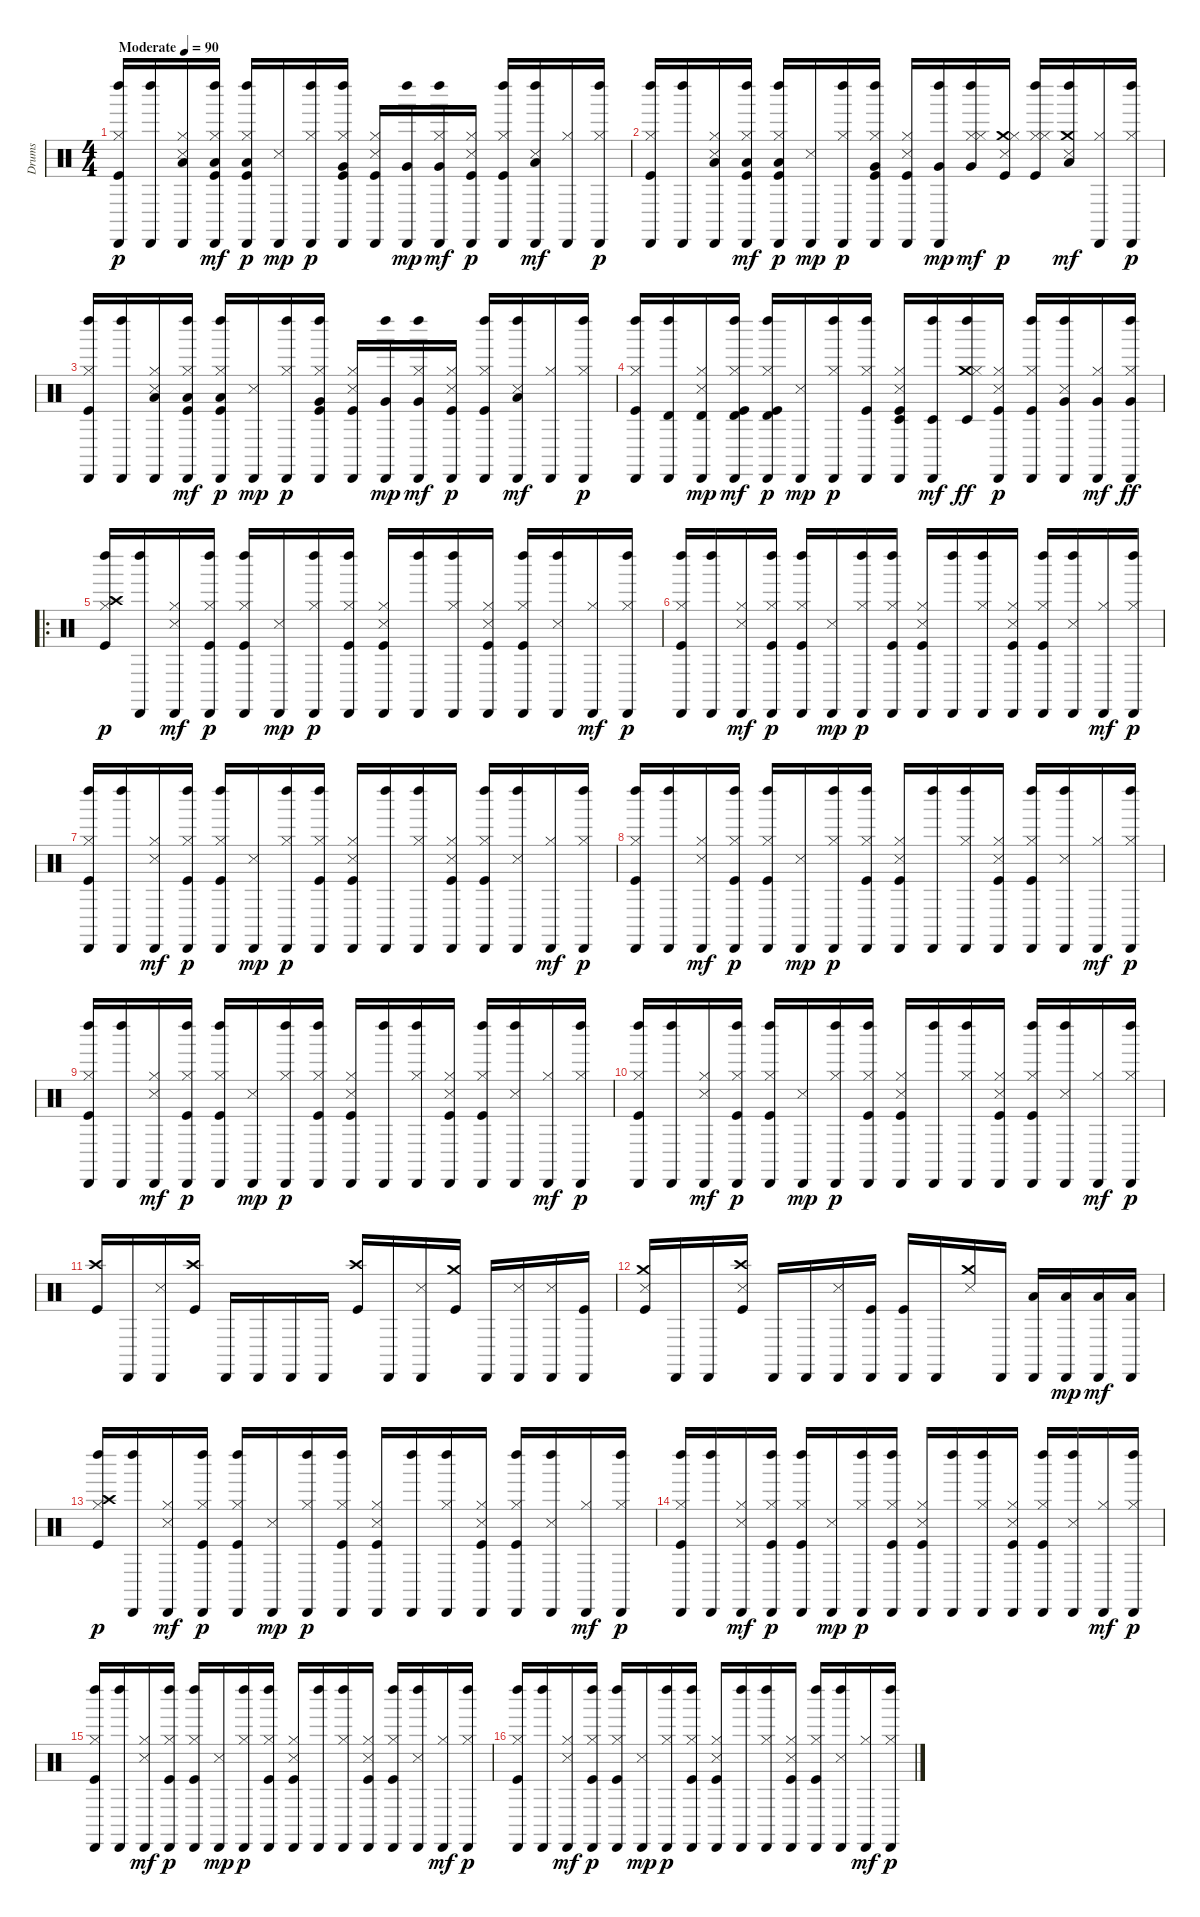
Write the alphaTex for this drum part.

\track ("Drums" "Drums") {instrument percussion}
\staff {score}
\articulation defaults
\ts (4 4)
\tempo (90 "Moderate")
\clef neutral
\ks c
("Cabasa (hit)" "Hi-Hat (closed)" "Left Maraca (hit)" "Kick (hit)").16{dy p} ("Cabasa (hit)" "Left Maraca (hit)").16 ("Cabasa (hit)" "Hi-Hat (closed)" "Snare (side stick) 3" "Low Tom (hit)").16 ("Cabasa (hit)" "Hi-Hat (closed)" "Left Maraca (hit)" "Low Tom (hit)" "Kick (hit)").16{dy mf} ("Cabasa (hit)" "Hi-Hat (closed)" "Left Maraca (hit)" "Low Tom (hit)" "Kick (hit)").16{dy p} ("Cabasa (hit)" "Snare (side stick) 3").16{dy mp} ("Cabasa (hit)" "Hi-Hat (closed)" "Left Maraca (hit)").16{dy p} ("Cabasa (hit)" "Hi-Hat (closed)" "Left Maraca (hit)" "Very Low Tom (hit)" "Kick (hit)").16 ("Cabasa (hit)" "Hi-Hat (closed)" "Snare (side stick) 3" "Kick (hit)").16 ("Cabasa (hit)" "Left Maraca (hit)" "Very Low Tom (hit)").16{dy mp} ("Cabasa (hit)" "Hi-Hat (closed)" "Left Maraca (hit)" "Very Low Tom (hit)").16{dy mf} ("Cabasa (hit)" "Hi-Hat (closed)" "Snare (side stick) 3" "Kick (hit)").16{dy p} ("Cabasa (hit)" "Hi-Hat (closed)" "Left Maraca (hit)" "Kick (hit)").16 ("Cabasa (hit)" "Snare (side stick) 3" "Left Maraca (hit)" "Low Floor Tom (hit)").16{dy mf} ("Cabasa (hit)" "Hi-Hat (closed)").16 ("Cabasa (hit)" "Hi-Hat (closed)" "Left Maraca (hit)").16{dy p} |
("Cabasa (hit)" "Hi-Hat (closed)" "Left Maraca (hit)" "Kick (hit)").16 ("Cabasa (hit)" "Left Maraca (hit)").16 ("Cabasa (hit)" "Hi-Hat (closed)" "Snare (side stick) 3" "Low Tom (hit)").16 ("Cabasa (hit)" "Hi-Hat (closed)" "Left Maraca (hit)" "Low Tom (hit)" "Kick (hit)").16{dy mf} ("Cabasa (hit)" "Hi-Hat (closed)" "Left Maraca (hit)" "Low Tom (hit)" "Kick (hit)").16{dy p} ("Cabasa (hit)" "Snare (side stick) 3").16{dy mp} ("Cabasa (hit)" "Hi-Hat (closed)" "Left Maraca (hit)").16{dy p} ("Cabasa (hit)" "Hi-Hat (closed)" "Left Maraca (hit)" "Very Low Tom (hit)" "Kick (hit)").16 ("Cabasa (hit)" "Hi-Hat (closed)" "Snare (side stick) 3" "Kick (hit)").16 ("Cabasa (hit)" "Left Maraca (hit)" "Very Low Tom (hit)").16{dy mp} ("Hi-Hat (closed)" "Hi-Hat (closed)" "Left Maraca (hit)" "Very Low Tom (hit)").16{dy mf} ("Crash medium (hit)" "Hi-Hat (closed)" "Snare (side stick) 3" "Kick (hit)").16{dy p} ("Hi-Hat (closed)" "Hi-Hat (closed)" "Left Maraca (hit)" "Kick (hit)").16 ("Crash medium (hit)" "Snare (side stick) 3" "Left Maraca (hit)" "Low Floor Tom (hit)").16{dy mf} ("Cabasa (hit)" "Hi-Hat (closed)").16 ("Cabasa (hit)" "Hi-Hat (closed)" "Left Maraca (hit)").16{dy p} |
("Cabasa (hit)" "Hi-Hat (closed)" "Left Maraca (hit)" "Kick (hit)").16 ("Cabasa (hit)" "Left Maraca (hit)").16 ("Cabasa (hit)" "Hi-Hat (closed)" "Snare (side stick) 3" "Low Tom (hit)").16 ("Cabasa (hit)" "Hi-Hat (closed)" "Left Maraca (hit)" "Low Tom (hit)" "Kick (hit)").16{dy mf} ("Cabasa (hit)" "Hi-Hat (closed)" "Left Maraca (hit)" "Low Tom (hit)" "Kick (hit)").16{dy p} ("Cabasa (hit)" "Snare (side stick) 3").16{dy mp} ("Cabasa (hit)" "Hi-Hat (closed)" "Left Maraca (hit)").16{dy p} ("Cabasa (hit)" "Hi-Hat (closed)" "Left Maraca (hit)" "Very Low Tom (hit)" "Kick (hit)").16 ("Cabasa (hit)" "Hi-Hat (closed)" "Snare (side stick) 3" "Kick (hit)").16 ("Cabasa (hit)" "Left Maraca (hit)" "Very Low Tom (hit)").16{dy mp} ("Cabasa (hit)" "Hi-Hat (closed)" "Left Maraca (hit)" "Very Low Tom (hit)").16{dy mf} ("Cabasa (hit)" "Hi-Hat (closed)" "Snare (side stick) 3" "Kick (hit)").16{dy p} ("Cabasa (hit)" "Hi-Hat (closed)" "Left Maraca (hit)" "Kick (hit)").16 ("Cabasa (hit)" "Snare (side stick) 3" "Left Maraca (hit)" "Low Floor Tom (hit)").16{dy mf} ("Cabasa (hit)" "Hi-Hat (closed)").16 ("Cabasa (hit)" "Hi-Hat (closed)" "Left Maraca (hit)").16{dy p} |
("Cabasa (hit)" "Hi-Hat (closed)" "Left Maraca (hit)" "Kick (hit)").16 ("Cabasa (hit)" "Left Maraca (hit)" "Timbale high (hit)").16 ("Cabasa (hit)" "Hi-Hat (closed)" "Snare (side stick) 3" "Timbale high (hit)").16{dy mp} ("Cabasa (hit)" "Hi-Hat (closed)" "Left Maraca (hit)" "Timbale high (hit)" "Kick (hit)").16{dy mf} ("Cabasa (hit)" "Hi-Hat (closed)" "Left Maraca (hit)" "Timbale high (hit)" "Kick (hit)").16{dy p} ("Cabasa (hit)" "Snare (side stick) 3").16{dy mp} ("Cabasa (hit)" "Hi-Hat (closed)" "Left Maraca (hit)").16{dy p} ("Cabasa (hit)" "Hi-Hat (closed)" "Left Maraca (hit)" "Kick (hit)").16 ("Cabasa (hit)" "Hi-Hat (closed)" "Snare (side stick) 3" "Timbale low (hit)" "Kick (hit)").16 ("Cabasa (hit)" "Left Maraca (hit)" "Timbale low (hit)").16{dy mf} ("Crash medium (hit)" "Hi-Hat (closed)" "Left Maraca (hit)" "Timbale low (hit)").16{dy ff} ("Cabasa (hit)" "Hi-Hat (closed)" "Snare (side stick) 3" "Kick (hit)").16{dy p} ("Cabasa (hit)" "Hi-Hat (closed)" "Left Maraca (hit)" "Kick (hit)").16 ("Cabasa (hit)" "Snare (side stick) 3" "Left Maraca (hit)" "Very Low Tom (hit)").16 ("Cabasa (hit)" "Hi-Hat (closed)" "Very Low Tom (hit)").16{dy mf} ("Cabasa (hit)" "Hi-Hat (closed)" "Left Maraca (hit)" "Very Low Tom (hit)").16{dy ff} |
\ro
("Crash high (hit)" "Hi-Hat (closed)" "Left Maraca (hit)" "Kick (hit)").16{dy p} ("Cabasa (hit)" "Left Maraca (hit)").16 ("Cabasa (hit)" "Hi-Hat (closed)" "Snare (side stick) 3").16{dy mf} ("Cabasa (hit)" "Hi-Hat (closed)" "Left Maraca (hit)" "Kick (hit)").16{dy p} ("Cabasa (hit)" "Hi-Hat (closed)" "Left Maraca (hit)" "Kick (hit)").16 ("Cabasa (hit)" "Snare (side stick) 3").16{dy mp} ("Cabasa (hit)" "Hi-Hat (closed)" "Left Maraca (hit)").16{dy p} ("Cabasa (hit)" "Hi-Hat (closed)" "Left Maraca (hit)" "Kick (hit)").16 ("Cabasa (hit)" "Hi-Hat (closed)" "Snare (side stick) 3" "Kick (hit)").16 ("Cabasa (hit)" "Left Maraca (hit)").16 ("Cabasa (hit)" "Hi-Hat (closed)" "Left Maraca (hit)").16 ("Cabasa (hit)" "Hi-Hat (closed)" "Snare (side stick) 3" "Kick (hit)").16 ("Cabasa (hit)" "Hi-Hat (closed)" "Left Maraca (hit)" "Kick (hit)").16 ("Cabasa (hit)" "Snare (side stick) 3" "Left Maraca (hit)").16 ("Cabasa (hit)" "Hi-Hat (closed)").16{dy mf} ("Cabasa (hit)" "Hi-Hat (closed)" "Left Maraca (hit)").16{dy p} |
("Cabasa (hit)" "Hi-Hat (closed)" "Left Maraca (hit)" "Kick (hit)").16 ("Cabasa (hit)" "Left Maraca (hit)").16 ("Cabasa (hit)" "Hi-Hat (closed)" "Snare (side stick) 3").16{dy mf} ("Cabasa (hit)" "Hi-Hat (closed)" "Left Maraca (hit)" "Kick (hit)").16{dy p} ("Cabasa (hit)" "Hi-Hat (closed)" "Left Maraca (hit)" "Kick (hit)").16 ("Cabasa (hit)" "Snare (side stick) 3").16{dy mp} ("Cabasa (hit)" "Hi-Hat (closed)" "Left Maraca (hit)").16{dy p} ("Cabasa (hit)" "Hi-Hat (closed)" "Left Maraca (hit)" "Kick (hit)").16 ("Cabasa (hit)" "Hi-Hat (closed)" "Snare (side stick) 3" "Kick (hit)").16 ("Cabasa (hit)" "Left Maraca (hit)").16 ("Cabasa (hit)" "Hi-Hat (closed)" "Left Maraca (hit)").16 ("Cabasa (hit)" "Hi-Hat (closed)" "Snare (side stick) 3" "Kick (hit)").16 ("Cabasa (hit)" "Hi-Hat (closed)" "Left Maraca (hit)" "Kick (hit)").16 ("Cabasa (hit)" "Snare (side stick) 3" "Left Maraca (hit)").16 ("Cabasa (hit)" "Hi-Hat (closed)").16{dy mf} ("Cabasa (hit)" "Hi-Hat (closed)" "Left Maraca (hit)").16{dy p} |
("Cabasa (hit)" "Hi-Hat (closed)" "Left Maraca (hit)" "Kick (hit)").16 ("Cabasa (hit)" "Left Maraca (hit)").16 ("Cabasa (hit)" "Hi-Hat (closed)" "Snare (side stick) 3").16{dy mf} ("Cabasa (hit)" "Hi-Hat (closed)" "Left Maraca (hit)" "Kick (hit)").16{dy p} ("Cabasa (hit)" "Hi-Hat (closed)" "Left Maraca (hit)" "Kick (hit)").16 ("Cabasa (hit)" "Snare (side stick) 3").16{dy mp} ("Cabasa (hit)" "Hi-Hat (closed)" "Left Maraca (hit)").16{dy p} ("Cabasa (hit)" "Hi-Hat (closed)" "Left Maraca (hit)" "Kick (hit)").16 ("Cabasa (hit)" "Hi-Hat (closed)" "Snare (side stick) 3" "Kick (hit)").16 ("Cabasa (hit)" "Left Maraca (hit)").16 ("Cabasa (hit)" "Hi-Hat (closed)" "Left Maraca (hit)").16 ("Cabasa (hit)" "Hi-Hat (closed)" "Snare (side stick) 3" "Kick (hit)").16 ("Cabasa (hit)" "Hi-Hat (closed)" "Left Maraca (hit)" "Kick (hit)").16 ("Cabasa (hit)" "Snare (side stick) 3" "Left Maraca (hit)").16 ("Cabasa (hit)" "Hi-Hat (closed)").16{dy mf} ("Cabasa (hit)" "Hi-Hat (closed)" "Left Maraca (hit)").16{dy p} |
("Cabasa (hit)" "Hi-Hat (closed)" "Left Maraca (hit)" "Kick (hit)").16 ("Cabasa (hit)" "Left Maraca (hit)").16 ("Cabasa (hit)" "Hi-Hat (closed)" "Snare (side stick) 3").16{dy mf} ("Cabasa (hit)" "Hi-Hat (closed)" "Left Maraca (hit)" "Kick (hit)").16{dy p} ("Cabasa (hit)" "Hi-Hat (closed)" "Left Maraca (hit)" "Kick (hit)").16 ("Cabasa (hit)" "Snare (side stick) 3").16{dy mp} ("Cabasa (hit)" "Hi-Hat (closed)" "Left Maraca (hit)").16{dy p} ("Cabasa (hit)" "Hi-Hat (closed)" "Left Maraca (hit)" "Kick (hit)").16 ("Cabasa (hit)" "Hi-Hat (closed)" "Snare (side stick) 3" "Kick (hit)").16 ("Cabasa (hit)" "Left Maraca (hit)").16 ("Cabasa (hit)" "Hi-Hat (closed)" "Left Maraca (hit)").16 ("Cabasa (hit)" "Hi-Hat (closed)" "Snare (side stick) 3" "Kick (hit)").16 ("Cabasa (hit)" "Hi-Hat (closed)" "Left Maraca (hit)" "Kick (hit)").16 ("Cabasa (hit)" "Snare (side stick) 3" "Left Maraca (hit)").16 ("Cabasa (hit)" "Hi-Hat (closed)").16{dy mf} ("Cabasa (hit)" "Hi-Hat (closed)" "Left Maraca (hit)").16{dy p} |
("Cabasa (hit)" "Hi-Hat (closed)" "Left Maraca (hit)" "Kick (hit)").16 ("Cabasa (hit)" "Left Maraca (hit)").16 ("Cabasa (hit)" "Hi-Hat (closed)" "Snare (side stick) 3").16{dy mf} ("Cabasa (hit)" "Hi-Hat (closed)" "Left Maraca (hit)" "Kick (hit)").16{dy p} ("Cabasa (hit)" "Hi-Hat (closed)" "Left Maraca (hit)" "Kick (hit)").16 ("Cabasa (hit)" "Snare (side stick) 3").16{dy mp} ("Cabasa (hit)" "Hi-Hat (closed)" "Left Maraca (hit)").16{dy p} ("Cabasa (hit)" "Hi-Hat (closed)" "Left Maraca (hit)" "Kick (hit)").16 ("Cabasa (hit)" "Hi-Hat (closed)" "Snare (side stick) 3" "Kick (hit)").16 ("Cabasa (hit)" "Left Maraca (hit)").16 ("Cabasa (hit)" "Hi-Hat (closed)" "Left Maraca (hit)").16 ("Cabasa (hit)" "Hi-Hat (closed)" "Snare (side stick) 3" "Kick (hit)").16 ("Cabasa (hit)" "Hi-Hat (closed)" "Left Maraca (hit)" "Kick (hit)").16 ("Cabasa (hit)" "Snare (side stick) 3" "Left Maraca (hit)").16 ("Cabasa (hit)" "Hi-Hat (closed)").16{dy mf} ("Cabasa (hit)" "Hi-Hat (closed)" "Left Maraca (hit)").16{dy p} |
("Cabasa (hit)" "Hi-Hat (closed)" "Left Maraca (hit)" "Kick (hit)").16 ("Cabasa (hit)" "Left Maraca (hit)").16 ("Cabasa (hit)" "Hi-Hat (closed)" "Snare (side stick) 3").16{dy mf} ("Cabasa (hit)" "Hi-Hat (closed)" "Left Maraca (hit)" "Kick (hit)").16{dy p} ("Cabasa (hit)" "Hi-Hat (closed)" "Left Maraca (hit)" "Kick (hit)").16 ("Cabasa (hit)" "Snare (side stick) 3").16{dy mp} ("Cabasa (hit)" "Hi-Hat (closed)" "Left Maraca (hit)").16{dy p} ("Cabasa (hit)" "Hi-Hat (closed)" "Left Maraca (hit)" "Kick (hit)").16 ("Cabasa (hit)" "Hi-Hat (closed)" "Snare (side stick) 3" "Kick (hit)").16 ("Cabasa (hit)" "Left Maraca (hit)").16 ("Cabasa (hit)" "Hi-Hat (closed)" "Left Maraca (hit)").16 ("Cabasa (hit)" "Hi-Hat (closed)" "Snare (side stick) 3" "Kick (hit)").16 ("Cabasa (hit)" "Hi-Hat (closed)" "Left Maraca (hit)" "Kick (hit)").16 ("Cabasa (hit)" "Snare (side stick) 3" "Left Maraca (hit)").16 ("Cabasa (hit)" "Hi-Hat (closed)").16{dy mf} ("Cabasa (hit)" "Hi-Hat (closed)" "Left Maraca (hit)").16{dy p} |
("Crash high (hit)" "Kick (hit)").16 "Cabasa (hit)".16 ("Cabasa (hit)" "Snare (side stick) 3").16 ("Crash high (hit)" "Kick (hit)").16 "Cabasa (hit)".16 "Cabasa (hit)".16 "Cabasa (hit)".16 "Cabasa (hit)".16 ("Crash high (hit)" "Kick (hit)").16 "Cabasa (hit)".16 ("Cabasa (hit)" "Snare (side stick) 3").16 ("Crash medium (hit)" "Kick (hit)").16 "Cabasa (hit)".16 ("Cabasa (hit)" "Snare (side stick) 3").16 ("Cabasa (hit)" "Snare (side stick) 3").16 ("Cabasa (hit)" "Kick (hit)").16 |
("Crash medium (hit)" "Snare (side stick) 3" "Kick (hit)").16 "Cabasa (hit)".16 "Cabasa (hit)".16 ("Crash high (hit)" "Snare (side stick) 3" "Kick (hit)").16 "Cabasa (hit)".16 "Cabasa (hit)".16 ("Cabasa (hit)" "Snare (side stick) 3").16 ("Cabasa (hit)" "Kick (hit)").16 ("Cabasa (hit)" "Kick (hit)").16 "Cabasa (hit)".16 ("Crash medium (hit)" "Snare (side stick) 3").16 "Cabasa (hit)".16 ("Cabasa (hit)" "Low Floor Tom (hit)").16 ("Cabasa (hit)" "Low Floor Tom (hit)").16{dy mp} ("Cabasa (hit)" "Low Floor Tom (hit)").16{dy mf} ("Cabasa (hit)" "Low Floor Tom (hit)").16 |
("Crash high (hit)" "Hi-Hat (closed)" "Left Maraca (hit)" "Kick (hit)").16{dy p} ("Cabasa (hit)" "Left Maraca (hit)").16 ("Cabasa (hit)" "Hi-Hat (closed)" "Snare (side stick) 3").16{dy mf} ("Cabasa (hit)" "Hi-Hat (closed)" "Left Maraca (hit)" "Kick (hit)").16{dy p} ("Cabasa (hit)" "Hi-Hat (closed)" "Left Maraca (hit)" "Kick (hit)").16 ("Cabasa (hit)" "Snare (side stick) 3").16{dy mp} ("Cabasa (hit)" "Hi-Hat (closed)" "Left Maraca (hit)").16{dy p} ("Cabasa (hit)" "Hi-Hat (closed)" "Left Maraca (hit)" "Kick (hit)").16 ("Cabasa (hit)" "Hi-Hat (closed)" "Snare (side stick) 3" "Kick (hit)").16 ("Cabasa (hit)" "Left Maraca (hit)").16 ("Cabasa (hit)" "Hi-Hat (closed)" "Left Maraca (hit)").16 ("Cabasa (hit)" "Hi-Hat (closed)" "Snare (side stick) 3" "Kick (hit)").16 ("Cabasa (hit)" "Hi-Hat (closed)" "Left Maraca (hit)" "Kick (hit)").16 ("Cabasa (hit)" "Snare (side stick) 3" "Left Maraca (hit)").16 ("Cabasa (hit)" "Hi-Hat (closed)").16{dy mf} ("Cabasa (hit)" "Hi-Hat (closed)" "Left Maraca (hit)").16{dy p} |
("Cabasa (hit)" "Hi-Hat (closed)" "Left Maraca (hit)" "Kick (hit)").16 ("Cabasa (hit)" "Left Maraca (hit)").16 ("Cabasa (hit)" "Hi-Hat (closed)" "Snare (side stick) 3").16{dy mf} ("Cabasa (hit)" "Hi-Hat (closed)" "Left Maraca (hit)" "Kick (hit)").16{dy p} ("Cabasa (hit)" "Hi-Hat (closed)" "Left Maraca (hit)" "Kick (hit)").16 ("Cabasa (hit)" "Snare (side stick) 3").16{dy mp} ("Cabasa (hit)" "Hi-Hat (closed)" "Left Maraca (hit)").16{dy p} ("Cabasa (hit)" "Hi-Hat (closed)" "Left Maraca (hit)" "Kick (hit)").16 ("Cabasa (hit)" "Hi-Hat (closed)" "Snare (side stick) 3" "Kick (hit)").16 ("Cabasa (hit)" "Left Maraca (hit)").16 ("Cabasa (hit)" "Hi-Hat (closed)" "Left Maraca (hit)").16 ("Cabasa (hit)" "Hi-Hat (closed)" "Snare (side stick) 3" "Kick (hit)").16 ("Cabasa (hit)" "Hi-Hat (closed)" "Left Maraca (hit)" "Kick (hit)").16 ("Cabasa (hit)" "Snare (side stick) 3" "Left Maraca (hit)").16 ("Cabasa (hit)" "Hi-Hat (closed)").16{dy mf} ("Cabasa (hit)" "Hi-Hat (closed)" "Left Maraca (hit)").16{dy p} |
("Cabasa (hit)" "Hi-Hat (closed)" "Left Maraca (hit)" "Kick (hit)").16 ("Cabasa (hit)" "Left Maraca (hit)").16 ("Cabasa (hit)" "Hi-Hat (closed)" "Snare (side stick) 3").16{dy mf} ("Cabasa (hit)" "Hi-Hat (closed)" "Left Maraca (hit)" "Kick (hit)").16{dy p} ("Cabasa (hit)" "Hi-Hat (closed)" "Left Maraca (hit)" "Kick (hit)").16 ("Cabasa (hit)" "Snare (side stick) 3").16{dy mp} ("Cabasa (hit)" "Hi-Hat (closed)" "Left Maraca (hit)").16{dy p} ("Cabasa (hit)" "Hi-Hat (closed)" "Left Maraca (hit)" "Kick (hit)").16 ("Cabasa (hit)" "Hi-Hat (closed)" "Snare (side stick) 3" "Kick (hit)").16 ("Cabasa (hit)" "Left Maraca (hit)").16 ("Cabasa (hit)" "Hi-Hat (closed)" "Left Maraca (hit)").16 ("Cabasa (hit)" "Hi-Hat (closed)" "Snare (side stick) 3" "Kick (hit)").16 ("Cabasa (hit)" "Hi-Hat (closed)" "Left Maraca (hit)" "Kick (hit)").16 ("Cabasa (hit)" "Snare (side stick) 3" "Left Maraca (hit)").16 ("Cabasa (hit)" "Hi-Hat (closed)").16{dy mf} ("Cabasa (hit)" "Hi-Hat (closed)" "Left Maraca (hit)").16{dy p} |
("Cabasa (hit)" "Hi-Hat (closed)" "Left Maraca (hit)" "Kick (hit)").16 ("Cabasa (hit)" "Left Maraca (hit)").16 ("Cabasa (hit)" "Hi-Hat (closed)" "Snare (side stick) 3").16{dy mf} ("Cabasa (hit)" "Hi-Hat (closed)" "Left Maraca (hit)" "Kick (hit)").16{dy p} ("Cabasa (hit)" "Hi-Hat (closed)" "Left Maraca (hit)" "Kick (hit)").16 ("Cabasa (hit)" "Snare (side stick) 3").16{dy mp} ("Cabasa (hit)" "Hi-Hat (closed)" "Left Maraca (hit)").16{dy p} ("Cabasa (hit)" "Hi-Hat (closed)" "Left Maraca (hit)" "Kick (hit)").16 ("Cabasa (hit)" "Hi-Hat (closed)" "Snare (side stick) 3" "Kick (hit)").16 ("Cabasa (hit)" "Left Maraca (hit)").16 ("Cabasa (hit)" "Hi-Hat (closed)" "Left Maraca (hit)").16 ("Cabasa (hit)" "Hi-Hat (closed)" "Snare (side stick) 3" "Kick (hit)").16 ("Cabasa (hit)" "Hi-Hat (closed)" "Left Maraca (hit)" "Kick (hit)").16 ("Cabasa (hit)" "Snare (side stick) 3" "Left Maraca (hit)").16 ("Cabasa (hit)" "Hi-Hat (closed)").16{dy mf} ("Cabasa (hit)" "Hi-Hat (closed)" "Left Maraca (hit)").16{dy p}
